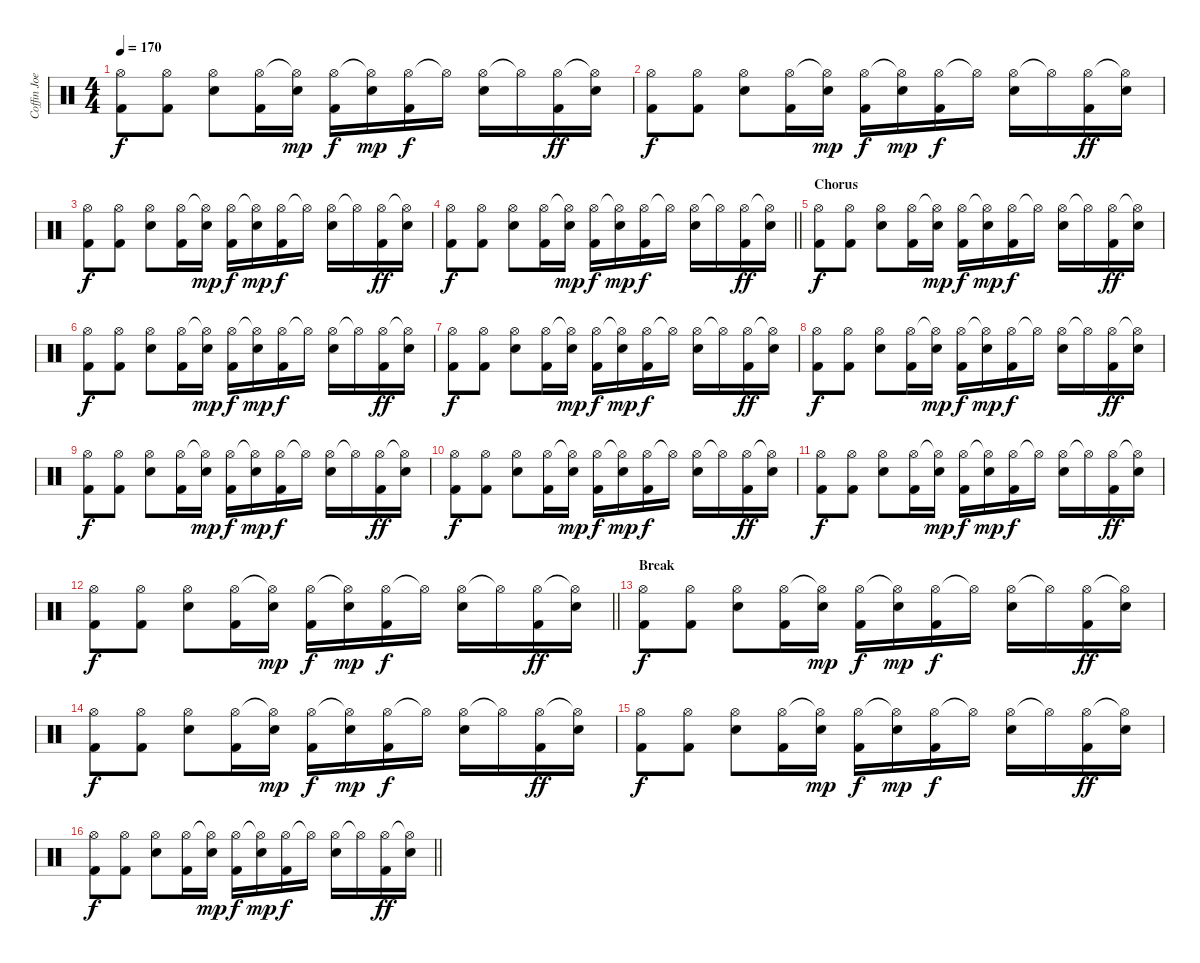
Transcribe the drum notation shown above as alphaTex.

\track ("Coffin Joe" "Coffin Joe") {instrument percussion}
\staff {score}
\articulation defaults
\ts (4 4)
\tempo 170
\clef neutral
\ks c
("Hi-Hat (open)" "Kick (hit) 2").8{dy f} ("Hi-Hat (open)" "Kick (hit) 2").8 ("Hi-Hat (open)" "Snare (hit) 2").8 ("Hi-Hat (open)" "Kick (hit) 2").16 ("Hi-Hat (open)"{t} "Snare (hit) 2").16{dy mp} ("Hi-Hat (open)" "Kick (hit) 2").16{dy f} ("Hi-Hat (open)"{t} "Snare (hit) 2").16{dy mp} ("Hi-Hat (open)" "Kick (hit) 2").16{dy f} "Hi-Hat (open)"{t}.16 ("Hi-Hat (open)" "Snare (hit) 2").16 "Hi-Hat (open)"{t}.16 ("Hi-Hat (open)" "Kick (hit) 2").16{dy ff} ("Hi-Hat (open)"{t} "Snare (hit) 2").16 |
("Hi-Hat (open)" "Kick (hit) 2").8{dy f} ("Hi-Hat (open)" "Kick (hit) 2").8 ("Hi-Hat (open)" "Snare (hit) 2").8 ("Hi-Hat (open)" "Kick (hit) 2").16 ("Hi-Hat (open)"{t} "Snare (hit) 2").16{dy mp} ("Hi-Hat (open)" "Kick (hit) 2").16{dy f} ("Hi-Hat (open)"{t} "Snare (hit) 2").16{dy mp} ("Hi-Hat (open)" "Kick (hit) 2").16{dy f} "Hi-Hat (open)"{t}.16 ("Hi-Hat (open)" "Snare (hit) 2").16 "Hi-Hat (open)"{t}.16 ("Hi-Hat (open)" "Kick (hit) 2").16{dy ff} ("Hi-Hat (open)"{t} "Snare (hit) 2").16 |
("Hi-Hat (open)" "Kick (hit) 2").8{dy f} ("Hi-Hat (open)" "Kick (hit) 2").8 ("Hi-Hat (open)" "Snare (hit) 2").8 ("Hi-Hat (open)" "Kick (hit) 2").16 ("Hi-Hat (open)"{t} "Snare (hit) 2").16{dy mp} ("Hi-Hat (open)" "Kick (hit) 2").16{dy f} ("Hi-Hat (open)"{t} "Snare (hit) 2").16{dy mp} ("Hi-Hat (open)" "Kick (hit) 2").16{dy f} "Hi-Hat (open)"{t}.16 ("Hi-Hat (open)" "Snare (hit) 2").16 "Hi-Hat (open)"{t}.16 ("Hi-Hat (open)" "Kick (hit) 2").16{dy ff} ("Hi-Hat (open)"{t} "Snare (hit) 2").16 |
\barLineRight lightlight
("Hi-Hat (open)" "Kick (hit) 2").8{dy f} ("Hi-Hat (open)" "Kick (hit) 2").8 ("Hi-Hat (open)" "Snare (hit) 2").8 ("Hi-Hat (open)" "Kick (hit) 2").16 ("Hi-Hat (open)"{t} "Snare (hit) 2").16{dy mp} ("Hi-Hat (open)" "Kick (hit) 2").16{dy f} ("Hi-Hat (open)"{t} "Snare (hit) 2").16{dy mp} ("Hi-Hat (open)" "Kick (hit) 2").16{dy f} "Hi-Hat (open)"{t}.16 ("Hi-Hat (open)" "Snare (hit) 2").16 "Hi-Hat (open)"{t}.16 ("Hi-Hat (open)" "Kick (hit) 2").16{dy ff} ("Hi-Hat (open)"{t} "Snare (hit) 2").16 |
\section ("" "Chorus")
("Hi-Hat (open)" "Kick (hit) 2").8{dy f} ("Hi-Hat (open)" "Kick (hit) 2").8 ("Hi-Hat (open)" "Snare (hit) 2").8 ("Hi-Hat (open)" "Kick (hit) 2").16 ("Hi-Hat (open)"{t} "Snare (hit) 2").16{dy mp} ("Hi-Hat (open)" "Kick (hit) 2").16{dy f} ("Hi-Hat (open)"{t} "Snare (hit) 2").16{dy mp} ("Hi-Hat (open)" "Kick (hit) 2").16{dy f} "Hi-Hat (open)"{t}.16 ("Hi-Hat (open)" "Snare (hit) 2").16 "Hi-Hat (open)"{t}.16 ("Hi-Hat (open)" "Kick (hit) 2").16{dy ff} ("Hi-Hat (open)"{t} "Snare (hit) 2").16 |
("Hi-Hat (open)" "Kick (hit) 2").8{dy f} ("Hi-Hat (open)" "Kick (hit) 2").8 ("Hi-Hat (open)" "Snare (hit) 2").8 ("Hi-Hat (open)" "Kick (hit) 2").16 ("Hi-Hat (open)"{t} "Snare (hit) 2").16{dy mp} ("Hi-Hat (open)" "Kick (hit) 2").16{dy f} ("Hi-Hat (open)"{t} "Snare (hit) 2").16{dy mp} ("Hi-Hat (open)" "Kick (hit) 2").16{dy f} "Hi-Hat (open)"{t}.16 ("Hi-Hat (open)" "Snare (hit) 2").16 "Hi-Hat (open)"{t}.16 ("Hi-Hat (open)" "Kick (hit) 2").16{dy ff} ("Hi-Hat (open)"{t} "Snare (hit) 2").16 |
("Hi-Hat (open)" "Kick (hit) 2").8{dy f} ("Hi-Hat (open)" "Kick (hit) 2").8 ("Hi-Hat (open)" "Snare (hit) 2").8 ("Hi-Hat (open)" "Kick (hit) 2").16 ("Hi-Hat (open)"{t} "Snare (hit) 2").16{dy mp} ("Hi-Hat (open)" "Kick (hit) 2").16{dy f} ("Hi-Hat (open)"{t} "Snare (hit) 2").16{dy mp} ("Hi-Hat (open)" "Kick (hit) 2").16{dy f} "Hi-Hat (open)"{t}.16 ("Hi-Hat (open)" "Snare (hit) 2").16 "Hi-Hat (open)"{t}.16 ("Hi-Hat (open)" "Kick (hit) 2").16{dy ff} ("Hi-Hat (open)"{t} "Snare (hit) 2").16 |
("Hi-Hat (open)" "Kick (hit) 2").8{dy f} ("Hi-Hat (open)" "Kick (hit) 2").8 ("Hi-Hat (open)" "Snare (hit) 2").8 ("Hi-Hat (open)" "Kick (hit) 2").16 ("Hi-Hat (open)"{t} "Snare (hit) 2").16{dy mp} ("Hi-Hat (open)" "Kick (hit) 2").16{dy f} ("Hi-Hat (open)"{t} "Snare (hit) 2").16{dy mp} ("Hi-Hat (open)" "Kick (hit) 2").16{dy f} "Hi-Hat (open)"{t}.16 ("Hi-Hat (open)" "Snare (hit) 2").16 "Hi-Hat (open)"{t}.16 ("Hi-Hat (open)" "Kick (hit) 2").16{dy ff} ("Hi-Hat (open)"{t} "Snare (hit) 2").16 |
("Hi-Hat (open)" "Kick (hit) 2").8{dy f} ("Hi-Hat (open)" "Kick (hit) 2").8 ("Hi-Hat (open)" "Snare (hit) 2").8 ("Hi-Hat (open)" "Kick (hit) 2").16 ("Hi-Hat (open)"{t} "Snare (hit) 2").16{dy mp} ("Hi-Hat (open)" "Kick (hit) 2").16{dy f} ("Hi-Hat (open)"{t} "Snare (hit) 2").16{dy mp} ("Hi-Hat (open)" "Kick (hit) 2").16{dy f} "Hi-Hat (open)"{t}.16 ("Hi-Hat (open)" "Snare (hit) 2").16 "Hi-Hat (open)"{t}.16 ("Hi-Hat (open)" "Kick (hit) 2").16{dy ff} ("Hi-Hat (open)"{t} "Snare (hit) 2").16 |
("Hi-Hat (open)" "Kick (hit) 2").8{dy f} ("Hi-Hat (open)" "Kick (hit) 2").8 ("Hi-Hat (open)" "Snare (hit) 2").8 ("Hi-Hat (open)" "Kick (hit) 2").16 ("Hi-Hat (open)"{t} "Snare (hit) 2").16{dy mp} ("Hi-Hat (open)" "Kick (hit) 2").16{dy f} ("Hi-Hat (open)"{t} "Snare (hit) 2").16{dy mp} ("Hi-Hat (open)" "Kick (hit) 2").16{dy f} "Hi-Hat (open)"{t}.16 ("Hi-Hat (open)" "Snare (hit) 2").16 "Hi-Hat (open)"{t}.16 ("Hi-Hat (open)" "Kick (hit) 2").16{dy ff} ("Hi-Hat (open)"{t} "Snare (hit) 2").16 |
("Hi-Hat (open)" "Kick (hit) 2").8{dy f} ("Hi-Hat (open)" "Kick (hit) 2").8 ("Hi-Hat (open)" "Snare (hit) 2").8 ("Hi-Hat (open)" "Kick (hit) 2").16 ("Hi-Hat (open)"{t} "Snare (hit) 2").16{dy mp} ("Hi-Hat (open)" "Kick (hit) 2").16{dy f} ("Hi-Hat (open)"{t} "Snare (hit) 2").16{dy mp} ("Hi-Hat (open)" "Kick (hit) 2").16{dy f} "Hi-Hat (open)"{t}.16 ("Hi-Hat (open)" "Snare (hit) 2").16 "Hi-Hat (open)"{t}.16 ("Hi-Hat (open)" "Kick (hit) 2").16{dy ff} ("Hi-Hat (open)"{t} "Snare (hit) 2").16 |
\barLineRight lightlight
("Hi-Hat (open)" "Kick (hit) 2").8{dy f} ("Hi-Hat (open)" "Kick (hit) 2").8 ("Hi-Hat (open)" "Snare (hit) 2").8 ("Hi-Hat (open)" "Kick (hit) 2").16 ("Hi-Hat (open)"{t} "Snare (hit) 2").16{dy mp} ("Hi-Hat (open)" "Kick (hit) 2").16{dy f} ("Hi-Hat (open)"{t} "Snare (hit) 2").16{dy mp} ("Hi-Hat (open)" "Kick (hit) 2").16{dy f} "Hi-Hat (open)"{t}.16 ("Hi-Hat (open)" "Snare (hit) 2").16 "Hi-Hat (open)"{t}.16 ("Hi-Hat (open)" "Kick (hit) 2").16{dy ff} ("Hi-Hat (open)"{t} "Snare (hit) 2").16 |
\section ("" "Break")
("Hi-Hat (open)" "Kick (hit) 2").8{dy f} ("Hi-Hat (open)" "Kick (hit) 2").8 ("Hi-Hat (open)" "Snare (hit) 2").8 ("Hi-Hat (open)" "Kick (hit) 2").16 ("Hi-Hat (open)"{t} "Snare (hit) 2").16{dy mp} ("Hi-Hat (open)" "Kick (hit) 2").16{dy f} ("Hi-Hat (open)"{t} "Snare (hit) 2").16{dy mp} ("Hi-Hat (open)" "Kick (hit) 2").16{dy f} "Hi-Hat (open)"{t}.16 ("Hi-Hat (open)" "Snare (hit) 2").16 "Hi-Hat (open)"{t}.16 ("Hi-Hat (open)" "Kick (hit) 2").16{dy ff} ("Hi-Hat (open)"{t} "Snare (hit) 2").16 |
("Hi-Hat (open)" "Kick (hit) 2").8{dy f} ("Hi-Hat (open)" "Kick (hit) 2").8 ("Hi-Hat (open)" "Snare (hit) 2").8 ("Hi-Hat (open)" "Kick (hit) 2").16 ("Hi-Hat (open)"{t} "Snare (hit) 2").16{dy mp} ("Hi-Hat (open)" "Kick (hit) 2").16{dy f} ("Hi-Hat (open)"{t} "Snare (hit) 2").16{dy mp} ("Hi-Hat (open)" "Kick (hit) 2").16{dy f} "Hi-Hat (open)"{t}.16 ("Hi-Hat (open)" "Snare (hit) 2").16 "Hi-Hat (open)"{t}.16 ("Hi-Hat (open)" "Kick (hit) 2").16{dy ff} ("Hi-Hat (open)"{t} "Snare (hit) 2").16 |
("Hi-Hat (open)" "Kick (hit) 2").8{dy f} ("Hi-Hat (open)" "Kick (hit) 2").8 ("Hi-Hat (open)" "Snare (hit) 2").8 ("Hi-Hat (open)" "Kick (hit) 2").16 ("Hi-Hat (open)"{t} "Snare (hit) 2").16{dy mp} ("Hi-Hat (open)" "Kick (hit) 2").16{dy f} ("Hi-Hat (open)"{t} "Snare (hit) 2").16{dy mp} ("Hi-Hat (open)" "Kick (hit) 2").16{dy f} "Hi-Hat (open)"{t}.16 ("Hi-Hat (open)" "Snare (hit) 2").16 "Hi-Hat (open)"{t}.16 ("Hi-Hat (open)" "Kick (hit) 2").16{dy ff} ("Hi-Hat (open)"{t} "Snare (hit) 2").16 |
\barLineRight lightlight
("Hi-Hat (open)" "Kick (hit) 2").8{dy f} ("Hi-Hat (open)" "Kick (hit) 2").8 ("Hi-Hat (open)" "Snare (hit) 2").8 ("Hi-Hat (open)" "Kick (hit) 2").16 ("Hi-Hat (open)"{t} "Snare (hit) 2").16{dy mp} ("Hi-Hat (open)" "Kick (hit) 2").16{dy f} ("Hi-Hat (open)"{t} "Snare (hit) 2").16{dy mp} ("Hi-Hat (open)" "Kick (hit) 2").16{dy f} "Hi-Hat (open)"{t}.16 ("Hi-Hat (open)" "Snare (hit) 2").16 "Hi-Hat (open)"{t}.16 ("Hi-Hat (open)" "Kick (hit) 2").16{dy ff} ("Hi-Hat (open)"{t} "Snare (hit) 2").16
